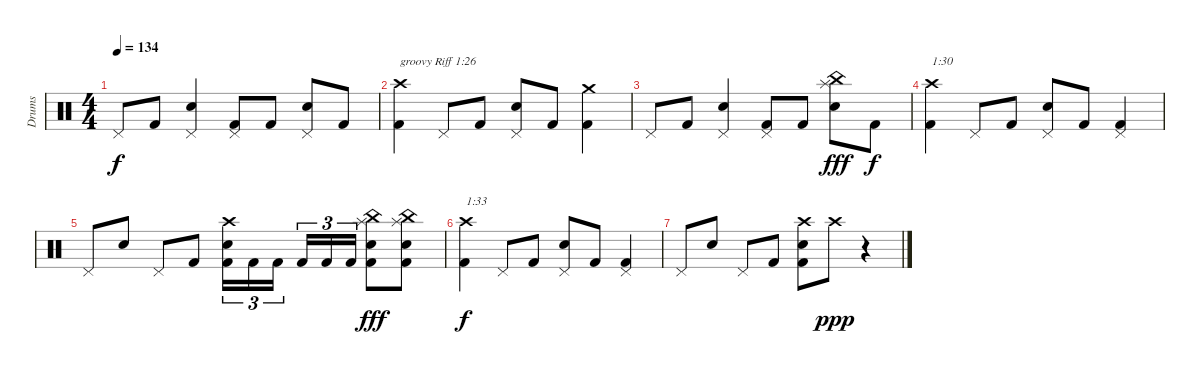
\track ("Drums" "Drums") {instrument percussion}
\staff {score}
\articulation defaults
\ts (4 4)
\tempo 134
\clef neutral
\ks c "Pedal Hi-Hat (hit)".8{dy f} "Kick (hit) 2".8
("Electric Snare (hit)" "Pedal Hi-Hat (hit)").4 ("Kick (hit) 2" "Pedal Hi-Hat (hit)").8 "Kick (hit) 2".8 ("Electric Snare (hit)" "Pedal Hi-Hat (hit)").8 "Kick (hit) 2".8 |
("Kick (hit) 2" "Crash high (hit)").4{txt "groovy Riff 1:26"} "Pedal Hi-Hat (hit)".8 "Kick (hit) 2".8 ("Electric Snare (hit)" "Pedal Hi-Hat (hit)").8 "Kick (hit) 2".8 ("Kick (hit) 2" "Crash medium (hit)").4 |
"Pedal Hi-Hat (hit)".8 "Kick (hit) 2".8 ("Electric Snare (hit)" "Pedal Hi-Hat (hit)").4 ("Kick (hit) 2" "Pedal Hi-Hat (hit)").8 "Kick (hit) 2".8 ("Electric Snare (hit)" "Splash (hit)" "China (hit)").8{dy fff} "Kick (hit) 2".8{dy f} |
("Kick (hit) 2" "Crash high (hit)").4{txt "1:30"} "Pedal Hi-Hat (hit)".8 "Kick (hit) 2".8 ("Electric Snare (hit)" "Pedal Hi-Hat (hit)").8 "Kick (hit) 2".8 ("Kick (hit) 2" "Pedal Hi-Hat (hit)").4 |
"Pedal Hi-Hat (hit)".8 "Electric Snare (hit)".8 "Pedal Hi-Hat (hit)".8 "Kick (hit) 2".8 ("Kick (hit) 2" "Electric Snare (hit)" "Crash high (hit)").16{tu (3 2)} "Kick (hit) 2".16{tu (3 2)} "Kick (hit) 2".16{tu (3 2)} "Kick (hit) 2".16{tu (3 2)} "Kick (hit) 2".16{tu (3 2)} "Kick (hit) 2".16{tu (3 2)} ("Kick (hit) 2" "Electric Snare (hit)" "Splash (hit)" "China (hit)").8{dy fff} ("Kick (hit) 2" "Electric Snare (hit)" "Splash (hit)" "China (hit)").8 |
("Kick (hit) 2" "Crash high (hit)").4{txt "1:33" dy f} "Pedal Hi-Hat (hit)".8 "Kick (hit) 2".8 ("Electric Snare (hit)" "Pedal Hi-Hat (hit)").8 "Kick (hit) 2".8 ("Kick (hit) 2" "Pedal Hi-Hat (hit)").4 |
"Pedal Hi-Hat (hit)".8 "Electric Snare (hit)".8 "Pedal Hi-Hat (hit)".8 "Kick (hit) 2".8 ("Kick (hit) 2" "Electric Snare (hit)" "Crash high (hit)").8 "Crash high (hit)".8{dy ppp} r.4
